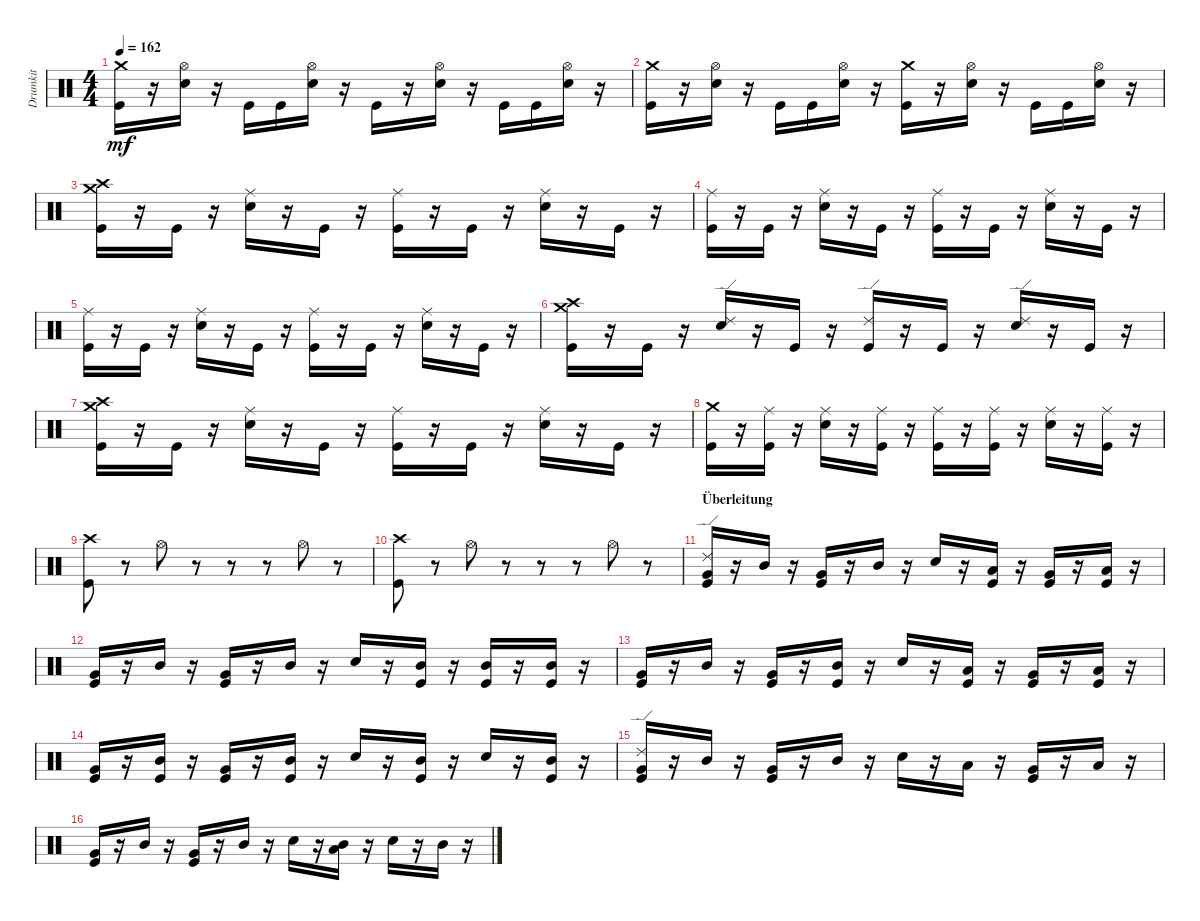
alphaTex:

\track ("Drumkit" "Drumkit") {instrument percussion}
\staff {score}
\articulation defaults
\ts (4 4)
\tempo 162
\clef neutral
\ks c
("Kick (hit)" "Crash medium (hit)").16{dy mf} r.16 ("Snare (hit) 2" "Hi-Hat (open)").16 r.16 "Kick (hit)".16 "Kick (hit)".16 ("Snare (hit) 2" "Hi-Hat (open)").16 r.16 "Kick (hit)".16 r.16 ("Snare (hit) 2" "Hi-Hat (open)").16 r.16 "Kick (hit)".16 "Kick (hit)".16 ("Snare (hit) 2" "Hi-Hat (open)").16 r.16 |
("Kick (hit)" "Crash medium (hit)").16 r.16 ("Snare (hit) 2" "Hi-Hat (open)").16 r.16 "Kick (hit)".16 "Kick (hit)".16 ("Snare (hit) 2" "Hi-Hat (open)").16 r.16 ("Kick (hit)" "Crash medium (hit)").16 r.16 ("Snare (hit) 2" "Hi-Hat (open)").16 r.16 "Kick (hit)".16 "Kick (hit)".16 ("Snare (hit) 2" "Hi-Hat (open)").16 r.16 |
("Kick (hit)" "Crash medium (hit)" "Crash high (hit)").16 r.16 "Kick (hit)".16 r.16 ("Snare (hit) 2" "Ride (middle)").16 r.16 "Kick (hit)".16 r.16 ("Kick (hit)" "Ride (middle)").16 r.16 "Kick (hit)".16 r.16 ("Snare (hit) 2" "Ride (middle)").16 r.16 "Kick (hit)".16 r.16 |
("Kick (hit)" "Ride (middle)").16 r.16 "Kick (hit)".16 r.16 ("Snare (hit) 2" "Ride (middle)").16 r.16 "Kick (hit)".16 r.16 ("Kick (hit)" "Ride (middle)").16 r.16 "Kick (hit)".16 r.16 ("Snare (hit) 2" "Ride (middle)").16 r.16 "Kick (hit)".16 r.16 |
("Kick (hit)" "Ride (middle)").16 r.16 "Kick (hit)".16 r.16 ("Snare (hit) 2" "Ride (middle)").16 r.16 "Kick (hit)".16 r.16 ("Kick (hit)" "Ride (middle)").16 r.16 "Kick (hit)".16 r.16 ("Snare (hit) 2" "Ride (middle)").16 r.16 "Kick (hit)".16 r.16 |
("Kick (hit)" "Crash medium (hit)" "Crash high (hit)").16 r.16 "Kick (hit)".16 r.16 ("Snare (hit) 2" "Ride (edge) 2").16 r.16 "Kick (hit)".16 r.16 ("Kick (hit)" "Ride (edge) 2").16 r.16 "Kick (hit)".16 r.16 ("Snare (hit) 2" "Ride (edge) 2").16 r.16 "Kick (hit)".16 r.16 |
("Kick (hit)" "Crash high (hit)" "Crash medium (hit)").16 r.16 "Kick (hit)".16 r.16 ("Snare (hit) 2" "Ride (middle)").16 r.16 "Kick (hit)".16 r.16 ("Kick (hit)" "Ride (middle)").16 r.16 "Kick (hit)".16 r.16 ("Snare (hit) 2" "Ride (middle)").16 r.16 "Kick (hit)".16 r.16 |
("Kick (hit)" "Crash medium (hit)").16 r.16 ("Kick (hit)" "Ride (middle)").16 r.16 ("Snare (hit) 2" "Ride (middle)").16 r.16 ("Kick (hit)" "Ride (middle)").16 r.16 ("Kick (hit)" "Ride (middle)").16 r.16 ("Kick (hit)" "Ride (middle)").16 r.16 ("Snare (hit) 2" "Ride (middle)").16 r.16 ("Kick (hit)" "Ride (middle)").16 r.16 |
("Kick (hit)" "Crash high (hit)").8 r.8 "Hi-Hat (open)".8 r.8 r.8 r.8 "Hi-Hat (open)".8 r.8 |
("Kick (hit)" "Crash high (hit)").8 r.8 "Hi-Hat (open)".8 r.8 r.8 r.8 "Hi-Hat (open)".8 r.8 |
\section ("" "Überleitung")
("Kick (hit)" "Very Low Tom (hit)" "Ride (edge) 2").16 r.16 "Mid Tom (hit)".16 r.16 ("Kick (hit)" "Very Low Tom (hit)").16 r.16 "Mid Tom (hit)".16 r.16 "Snare (hit) 2".16 r.16 ("Kick (hit)" "Low Tom (hit)").16 r.16 ("Kick (hit)" "Very Low Tom (hit)").16 r.16 ("Kick (hit)" "Low Tom (hit)").16 r.16 |
("Kick (hit)" "Very Low Tom (hit)").16 r.16 "Mid Tom (hit)".16 r.16 ("Kick (hit)" "Very Low Tom (hit)").16 r.16 "Mid Tom (hit)".16 r.16 "Snare (hit) 2".16 r.16 ("Mid Tom (hit)" "Kick (hit)").16 r.16 ("Kick (hit)" "Mid Tom (hit)").16 r.16 ("Mid Tom (hit)" "Kick (hit)").16 r.16 |
("Kick (hit)" "Very Low Tom (hit)").16 r.16 "Mid Tom (hit)".16 r.16 ("Kick (hit)" "Very Low Tom (hit)").16 r.16 ("Mid Tom (hit)" "Kick (hit)").16 r.16 "Snare (hit) 2".16 r.16 ("Kick (hit)" "Low Tom (hit)").16 r.16 ("Kick (hit)" "Very Low Tom (hit)").16 r.16 ("Kick (hit)" "Low Tom (hit)").16 r.16 |
("Kick (hit)" "Very Low Tom (hit)").16 r.16 ("Mid Tom (hit)" "Kick (hit)").16 r.16 ("Kick (hit)" "Very Low Tom (hit)").16 r.16 ("Mid Tom (hit)" "Kick (hit)").16 r.16 "Snare (hit) 2".16 r.16 ("Mid Tom (hit)" "Kick (hit)").16 r.16 "Snare (hit) 2".16 r.16 ("Mid Tom (hit)" "Kick (hit)").16 r.16 |
("Kick (hit)" "Very Low Tom (hit)" "Ride (edge) 2").16 r.16 "Mid Tom (hit)".16 r.16 ("Kick (hit)" "Very Low Tom (hit)").16 r.16 "Mid Tom (hit)".16 r.16 "Snare (hit) 2".16 r.16 "Low Tom (hit)".16 r.16 ("Kick (hit)" "Very Low Tom (hit)").16 r.16 "Low Tom (hit)".16 r.16 |
("Kick (hit)" "Very Low Tom (hit)").16 r.16 "Mid Tom (hit)".16 r.16 ("Kick (hit)" "Very Low Tom (hit)").16 r.16 "Mid Tom (hit)".16 r.16 "Snare (hit) 2".16 r.16 ("Mid Tom (hit)" "Low Tom (hit)").16 r.16 "Snare (hit) 2".16 r.16 "Mid Tom (hit)".16 r.16
